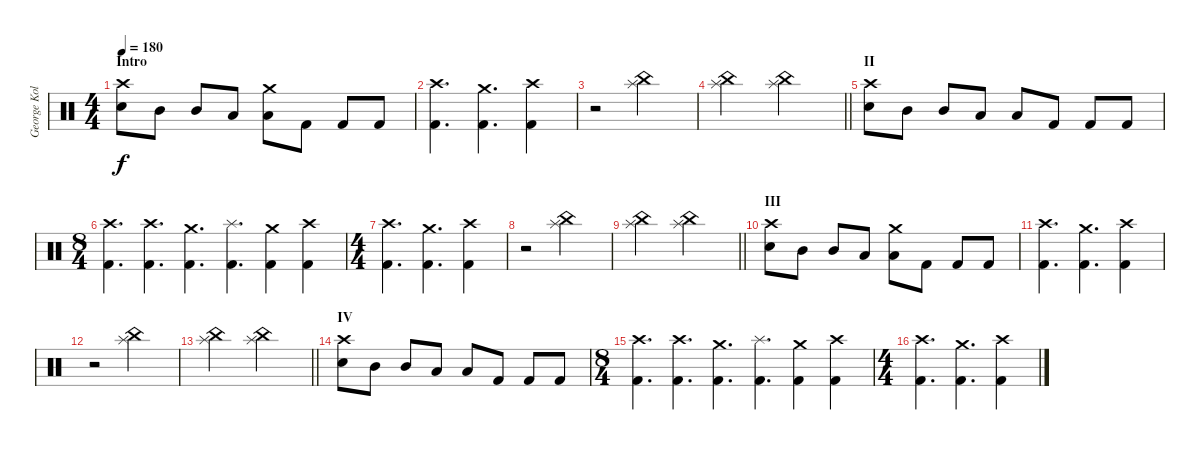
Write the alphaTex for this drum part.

\track ("George Kollias [Equill]" "George Kol") {instrument percussion}
\staff {score}
\articulation defaults
\ts (4 4)
\section ("" "Intro")
\tempo 180
\clef neutral
\ks c
("Crash high (hit)" "Electric Snare (hit)").8{dy f} "Mid Tom (hit)".8 "Mid Tom (hit)".8 "Low Tom (hit)".8 ("Crash medium (hit)" "Low Tom (hit)").8 "Kick (hit) 2".8 "Kick (hit) 2".8 "Kick (hit) 2".8 |
("Crash high (hit)" "Kick (hit) 2").4{d} ("Crash medium (hit)" "Kick (hit) 2").4{d} ("Crash high (hit)" "Kick (hit) 2").4 |
r.2 ("China (hit)" "Splash (hit)").2 |
\barLineRight lightlight
("China (hit)" "Splash (hit)").2 ("China (hit)" "Splash (hit)").2 |
\section ("" "II")
("Crash high (hit)" "Electric Snare (hit)").8 "Mid Tom (hit)".8 "Mid Tom (hit)".8 "Low Tom (hit)".8 "Low Tom (hit)".8 "Kick (hit) 2".8 "Kick (hit) 2".8 "Kick (hit) 2".8 |
\ts (8 4)
("Crash high (hit)" "Kick (hit) 2").4{d} ("Crash high (hit)" "Kick (hit) 2").4{d} ("Crash medium (hit)" "Kick (hit) 2").4{d} ("Splash (hit)" "Kick (hit) 2").4{d} ("Crash medium (hit)" "Kick (hit) 2").4 ("Crash high (hit)" "Kick (hit) 2").4 |
\ts (4 4)
("Crash high (hit)" "Kick (hit) 2").4{d} ("Crash medium (hit)" "Kick (hit) 2").4{d} ("Crash high (hit)" "Kick (hit) 2").4 |
r.2 ("China (hit)" "Splash (hit)").2 |
\barLineRight lightlight
("China (hit)" "Splash (hit)").2 ("China (hit)" "Splash (hit)").2 |
\section ("" "III")
("Crash high (hit)" "Electric Snare (hit)").8 "Mid Tom (hit)".8 "Mid Tom (hit)".8 "Low Tom (hit)".8 ("Crash medium (hit)" "Low Tom (hit)").8 "Kick (hit) 2".8 "Kick (hit) 2".8 "Kick (hit) 2".8 |
("Crash high (hit)" "Kick (hit) 2").4{d} ("Crash medium (hit)" "Kick (hit) 2").4{d} ("Crash high (hit)" "Kick (hit) 2").4 |
r.2 ("China (hit)" "Splash (hit)").2 |
\barLineRight lightlight
("China (hit)" "Splash (hit)").2 ("China (hit)" "Splash (hit)").2 |
\section ("" "IV")
("Crash high (hit)" "Electric Snare (hit)").8 "Mid Tom (hit)".8 "Mid Tom (hit)".8 "Low Tom (hit)".8 "Low Tom (hit)".8 "Kick (hit) 2".8 "Kick (hit) 2".8 "Kick (hit) 2".8 |
\ts (8 4)
("Crash high (hit)" "Kick (hit) 2").4{d} ("Crash high (hit)" "Kick (hit) 2").4{d} ("Crash medium (hit)" "Kick (hit) 2").4{d} ("Splash (hit)" "Kick (hit) 2").4{d} ("Crash medium (hit)" "Kick (hit) 2").4 ("Crash high (hit)" "Kick (hit) 2").4 |
\ts (4 4)
("Crash high (hit)" "Kick (hit) 2").4{d} ("Crash medium (hit)" "Kick (hit) 2").4{d} ("Crash high (hit)" "Kick (hit) 2").4
